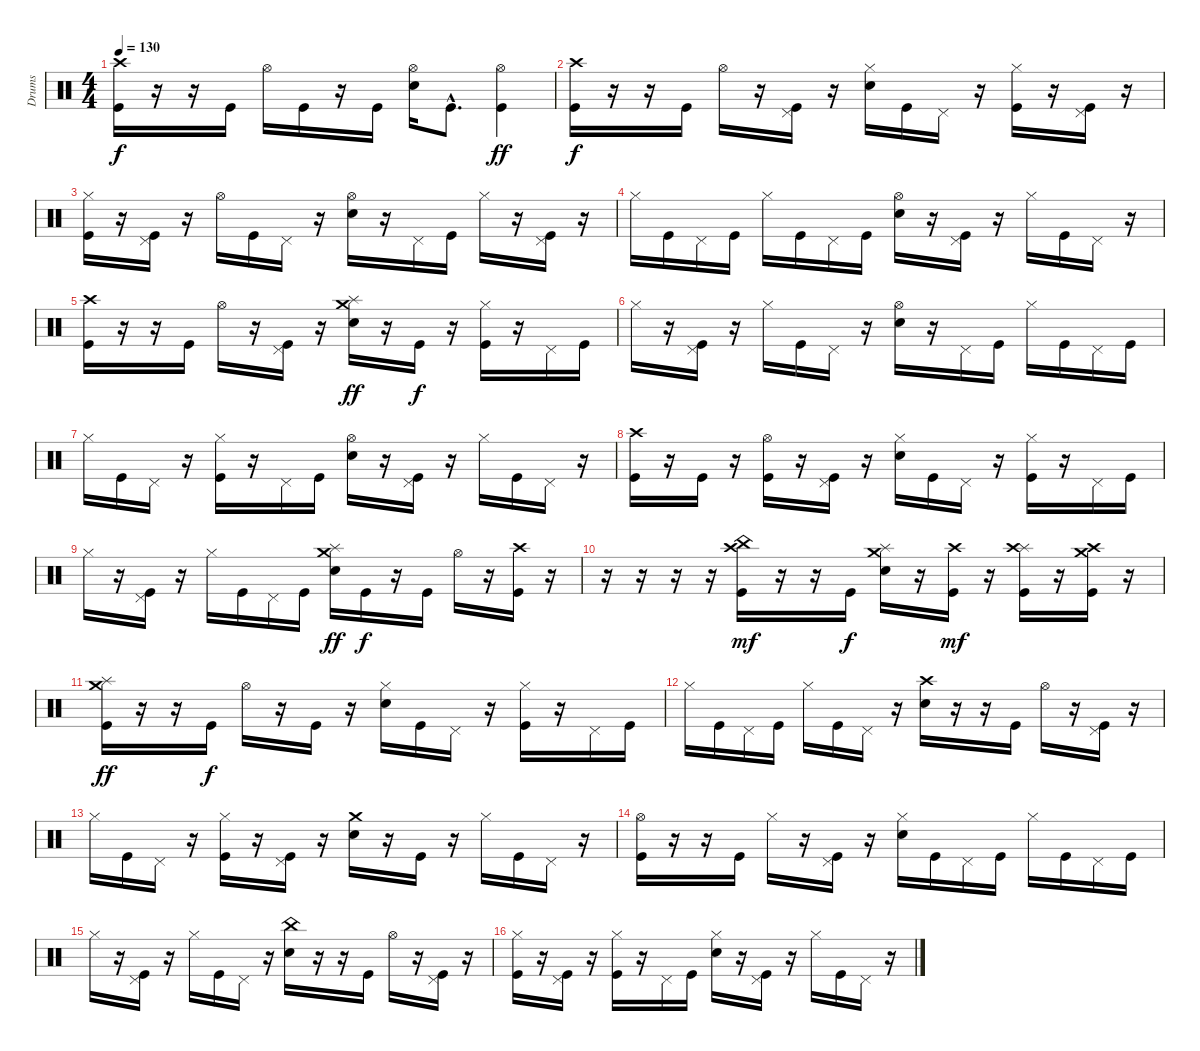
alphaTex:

\track ("Drums" "Drums") {instrument percussion}
\staff {score}
\articulation defaults
\ts (4 4)
\tempo 130
\clef neutral
\ks c
("Crash high (hit)" "Kick (hit)").16{dy f} r.16 r.16 "Kick (hit)".16 "Hi-Hat (open)".16 "Kick (hit)".16 r.16 "Kick (hit)".16 ("Hi-Hat (open)" "Electric Snare (hit)").16 "Kick (hit)"{hac}.8{d} ("Hi-Hat (open)" "Kick (hit)").4{dy ff} |
("Crash high (hit)" "Kick (hit)").16{dy f} r.16 r.16 "Kick (hit)".16 "Hi-Hat (open)".16 r.16 ("Pedal Hi-Hat (hit)" "Kick (hit)").16 r.16 ("Hi-Hat (closed)" "Electric Snare (hit)").16 "Kick (hit)".16 "Pedal Hi-Hat (hit)".16 r.16 ("Hi-Hat (closed)" "Kick (hit)").16 r.16 ("Pedal Hi-Hat (hit)" "Kick (hit)").16 r.16 |
("Hi-Hat (closed)" "Kick (hit)").16 r.16 ("Pedal Hi-Hat (hit)" "Kick (hit)").16 r.16 "Hi-Hat (open)".16 "Kick (hit)".16 "Pedal Hi-Hat (hit)".16 r.16 ("Hi-Hat (open)" "Electric Snare (hit)").16 r.16 "Pedal Hi-Hat (hit)".16 "Kick (hit)".16 "Hi-Hat (closed)".16 r.16 ("Pedal Hi-Hat (hit)" "Kick (hit)").16 r.16 |
"Hi-Hat (closed)".16 "Kick (hit)".16 "Pedal Hi-Hat (hit)".16 "Kick (hit)".16 "Hi-Hat (closed)".16 "Kick (hit)".16 "Pedal Hi-Hat (hit)".16 "Kick (hit)".16 ("Hi-Hat (open)" "Electric Snare (hit)").16 r.16 ("Pedal Hi-Hat (hit)" "Kick (hit)").16 r.16 "Hi-Hat (closed)".16 "Kick (hit)".16 "Pedal Hi-Hat (hit)".16 r.16 |
("Crash high (hit)" "Kick (hit)").16 r.16 r.16 "Kick (hit)".16 "Hi-Hat (open)".16 r.16 ("Pedal Hi-Hat (hit)" "Kick (hit)").16 r.16 ("Crash medium (hit)" "Splash (hit)" "Electric Snare (hit)").16{dy ff} r.16 "Kick (hit)".16{dy f} r.16 ("Hi-Hat (closed)" "Kick (hit)").16 r.16 "Pedal Hi-Hat (hit)".16 "Kick (hit)".16 |
"Hi-Hat (closed)".16 r.16 ("Pedal Hi-Hat (hit)" "Kick (hit)").16 r.16 "Hi-Hat (closed)".16 "Kick (hit)".16 "Pedal Hi-Hat (hit)".16 r.16 ("Hi-Hat (open)" "Electric Snare (hit)").16 r.16 "Pedal Hi-Hat (hit)".16 "Kick (hit)".16 "Hi-Hat (closed)".16 "Kick (hit)".16 "Pedal Hi-Hat (hit)".16 "Kick (hit)".16 |
"Hi-Hat (closed)".16 "Kick (hit)".16 "Pedal Hi-Hat (hit)".16 r.16 ("Hi-Hat (closed)" "Kick (hit)").16 r.16 "Pedal Hi-Hat (hit)".16 "Kick (hit)".16 ("Hi-Hat (open)" "Electric Snare (hit)").16 r.16 ("Pedal Hi-Hat (hit)" "Kick (hit)").16 r.16 "Hi-Hat (closed)".16 "Kick (hit)".16 "Pedal Hi-Hat (hit)".16 r.16 |
("Crash high (hit)" "Kick (hit)").16 r.16 "Kick (hit)".16 r.16 ("Hi-Hat (open)" "Kick (hit)").16 r.16 ("Pedal Hi-Hat (hit)" "Kick (hit)").16 r.16 ("Hi-Hat (closed)" "Electric Snare (hit)").16 "Kick (hit)".16 "Pedal Hi-Hat (hit)".16 r.16 ("Hi-Hat (closed)" "Kick (hit)").16 r.16 "Pedal Hi-Hat (hit)".16 "Kick (hit)".16 |
"Hi-Hat (closed)".16 r.16 ("Pedal Hi-Hat (hit)" "Kick (hit)").16 r.16 "Hi-Hat (closed)".16 "Kick (hit)".16 "Pedal Hi-Hat (hit)".16 "Kick (hit)".16 ("Crash medium (hit)" "Splash (hit)" "Electric Snare (hit)").16{dy ff} "Kick (hit)".16{dy f} r.16 "Kick (hit)".16 "Hi-Hat (open)".16 r.16 ("Crash high (hit)" "Kick (hit)").16 r.16 |
r.16 r.16 r.16 r.16 ("Crash high (hit)" "China (hit)" "Kick (hit)").16{dy mf} r.16 r.16 "Kick (hit)".16{dy f} ("Crash medium (hit)" "Splash (hit)" "Electric Snare (hit)").16 r.16 ("Crash high (hit)" "Kick (hit)").16{dy mf} r.16 ("Splash (hit)" "Crash high (hit)" "Kick (hit)").16 r.16 ("Crash medium (hit)" "Crash high (hit)" "Kick (hit)").16 r.16 |
("Splash (hit)" "Crash medium (hit)" "Kick (hit)").16{dy ff} r.16 r.16 "Kick (hit)".16{dy f} "Hi-Hat (open)".16 r.16 "Kick (hit)".16 r.16 ("Hi-Hat (closed)" "Electric Snare (hit)").16 "Kick (hit)".16 "Pedal Hi-Hat (hit)".16 r.16 ("Hi-Hat (closed)" "Kick (hit)").16 r.16 "Pedal Hi-Hat (hit)".16 "Kick (hit)".16 |
"Hi-Hat (closed)".16 "Kick (hit)".16 "Pedal Hi-Hat (hit)".16 "Kick (hit)".16 "Hi-Hat (closed)".16 "Kick (hit)".16 "Pedal Hi-Hat (hit)".16 r.16 ("Crash high (hit)" "Electric Snare (hit)").16 r.16 r.16 "Kick (hit)".16 "Hi-Hat (open)".16 r.16 ("Pedal Hi-Hat (hit)" "Kick (hit)").16 r.16 |
"Hi-Hat (closed)".16 "Kick (hit)".16 "Pedal Hi-Hat (hit)".16 r.16 ("Hi-Hat (closed)" "Kick (hit)").16 r.16 ("Pedal Hi-Hat (hit)" "Kick (hit)").16 r.16 ("Crash medium (hit)" "Electric Snare (hit)").16 r.16 "Kick (hit)".16 r.16 "Hi-Hat (closed)".16 "Kick (hit)".16 "Pedal Hi-Hat (hit)".16 r.16 |
("Hi-Hat (open)" "Kick (hit)").16 r.16 r.16 "Kick (hit)".16 "Hi-Hat (closed)".16 r.16 ("Pedal Hi-Hat (hit)" "Kick (hit)").16 r.16 ("Hi-Hat (closed)" "Electric Snare (hit)").16 "Kick (hit)".16 "Pedal Hi-Hat (hit)".16 "Kick (hit)".16 "Hi-Hat (closed)".16 "Kick (hit)".16 "Pedal Hi-Hat (hit)".16 "Kick (hit)".16 |
"Hi-Hat (closed)".16 r.16 ("Pedal Hi-Hat (hit)" "Kick (hit)").16 r.16 "Hi-Hat (closed)".16 "Kick (hit)".16 "Pedal Hi-Hat (hit)".16 r.16 ("China (hit)" "Electric Snare (hit)").16 r.16 r.16 "Kick (hit)".16 "Hi-Hat (open)".16 r.16 ("Pedal Hi-Hat (hit)" "Kick (hit)").16 r.16 |
("Hi-Hat (closed)" "Kick (hit)").16 r.16 ("Pedal Hi-Hat (hit)" "Kick (hit)").16 r.16 ("Hi-Hat (closed)" "Kick (hit)").16 r.16 "Pedal Hi-Hat (hit)".16 "Kick (hit)".16 ("Hi-Hat (closed)" "Electric Snare (hit)").16 r.16 ("Pedal Hi-Hat (hit)" "Kick (hit)").16 r.16 "Hi-Hat (closed)".16 "Kick (hit)".16 "Pedal Hi-Hat (hit)".16 r.16
